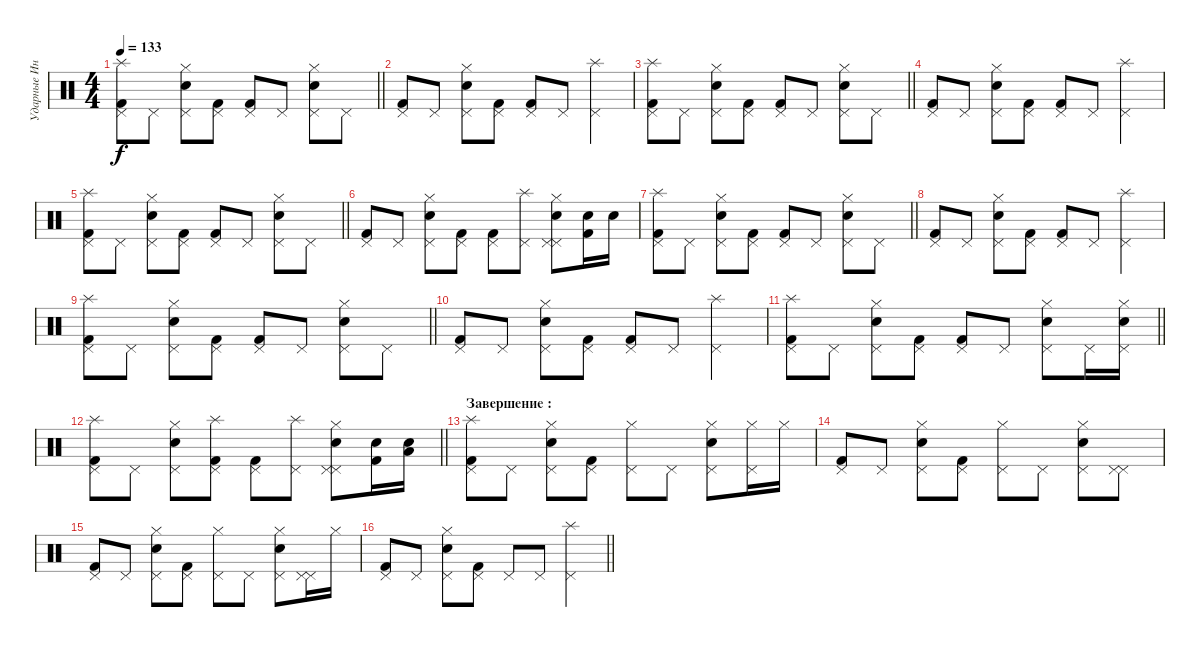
\track ("Ударные Инструменты" "Ударные Ин") {instrument percussion}
\staff {score}
\articulation defaults
\ts (4 4)
\tempo 133
\clef neutral
\barLineRight lightlight
\ks c
("Splash (hit)" "Pedal Hi-Hat (hit)" "Kick (hit) 2").8{dy f} "Pedal Hi-Hat (hit)".8 ("Electric Snare (hit)" "Pedal Hi-Hat (hit)" "Hi-Hat (closed)").8 ("Pedal Hi-Hat (hit)" "Kick (hit) 2").8 ("Pedal Hi-Hat (hit)" "Kick (hit) 2").8 "Pedal Hi-Hat (hit)".8 ("Electric Snare (hit)" "Pedal Hi-Hat (hit)" "Hi-Hat (closed)").8 "Pedal Hi-Hat (hit)".8 |
("Pedal Hi-Hat (hit)" "Kick (hit) 2").8 "Pedal Hi-Hat (hit)".8 ("Electric Snare (hit)" "Pedal Hi-Hat (hit)" "Hi-Hat (closed)").8 ("Pedal Hi-Hat (hit)" "Kick (hit) 2").8 ("Pedal Hi-Hat (hit)" "Kick (hit) 2").8 "Pedal Hi-Hat (hit)".8 ("Splash (hit)" "Pedal Hi-Hat (hit)").4 |
\barLineRight lightlight
("Splash (hit)" "Pedal Hi-Hat (hit)" "Kick (hit) 2").8 "Pedal Hi-Hat (hit)".8 ("Electric Snare (hit)" "Pedal Hi-Hat (hit)" "Hi-Hat (closed)").8 ("Pedal Hi-Hat (hit)" "Kick (hit) 2").8 ("Pedal Hi-Hat (hit)" "Kick (hit) 2").8 "Pedal Hi-Hat (hit)".8 ("Electric Snare (hit)" "Pedal Hi-Hat (hit)" "Hi-Hat (closed)").8 "Pedal Hi-Hat (hit)".8 |
("Pedal Hi-Hat (hit)" "Kick (hit) 2").8 "Pedal Hi-Hat (hit)".8 ("Electric Snare (hit)" "Pedal Hi-Hat (hit)" "Hi-Hat (closed)").8 ("Pedal Hi-Hat (hit)" "Kick (hit) 2").8 ("Pedal Hi-Hat (hit)" "Kick (hit) 2").8 "Pedal Hi-Hat (hit)".8 ("Splash (hit)" "Pedal Hi-Hat (hit)").4 |
\barLineRight lightlight
("Splash (hit)" "Pedal Hi-Hat (hit)" "Kick (hit) 2").8 "Pedal Hi-Hat (hit)".8 ("Electric Snare (hit)" "Pedal Hi-Hat (hit)" "Hi-Hat (closed)").8 ("Pedal Hi-Hat (hit)" "Kick (hit) 2").8 ("Pedal Hi-Hat (hit)" "Kick (hit) 2").8 "Pedal Hi-Hat (hit)".8 ("Electric Snare (hit)" "Pedal Hi-Hat (hit)" "Hi-Hat (closed)").8 "Pedal Hi-Hat (hit)".8 |
("Pedal Hi-Hat (hit)" "Kick (hit) 2").8 "Pedal Hi-Hat (hit)".8 ("Electric Snare (hit)" "Pedal Hi-Hat (hit)" "Hi-Hat (closed)").8 ("Pedal Hi-Hat (hit)" "Kick (hit) 2").8 ("Pedal Hi-Hat (hit)" "Kick (hit) 2").8 ("Splash (hit)" "Pedal Hi-Hat (hit)").8 ("Electric Snare (hit)" "Pedal Hi-Hat (hit)" "Hi-Hat (closed)" "Pedal Hi-Hat (hit)").8 ("Snare (hit) 2" "Kick (hit) 2").16 "Snare (hit) 2".16 |
\barLineRight lightlight
("Splash (hit)" "Pedal Hi-Hat (hit)" "Kick (hit) 2").8 "Pedal Hi-Hat (hit)".8 ("Electric Snare (hit)" "Pedal Hi-Hat (hit)" "Hi-Hat (closed)").8 ("Pedal Hi-Hat (hit)" "Kick (hit) 2").8 ("Pedal Hi-Hat (hit)" "Kick (hit) 2").8 "Pedal Hi-Hat (hit)".8 ("Electric Snare (hit)" "Pedal Hi-Hat (hit)" "Hi-Hat (closed)").8 "Pedal Hi-Hat (hit)".8 |
("Pedal Hi-Hat (hit)" "Kick (hit) 2").8 "Pedal Hi-Hat (hit)".8 ("Electric Snare (hit)" "Pedal Hi-Hat (hit)" "Hi-Hat (closed)").8 ("Pedal Hi-Hat (hit)" "Kick (hit) 2").8 ("Pedal Hi-Hat (hit)" "Kick (hit) 2").8 "Pedal Hi-Hat (hit)".8 ("Splash (hit)" "Pedal Hi-Hat (hit)").4 |
\barLineRight lightlight
("Splash (hit)" "Pedal Hi-Hat (hit)" "Kick (hit) 2").8 "Pedal Hi-Hat (hit)".8 ("Electric Snare (hit)" "Pedal Hi-Hat (hit)" "Hi-Hat (closed)").8 ("Pedal Hi-Hat (hit)" "Kick (hit) 2").8 ("Pedal Hi-Hat (hit)" "Kick (hit) 2").8 "Pedal Hi-Hat (hit)".8 ("Electric Snare (hit)" "Pedal Hi-Hat (hit)" "Hi-Hat (closed)").8 "Pedal Hi-Hat (hit)".8 |
("Pedal Hi-Hat (hit)" "Kick (hit) 2").8 "Pedal Hi-Hat (hit)".8 ("Electric Snare (hit)" "Pedal Hi-Hat (hit)" "Hi-Hat (closed)").8 ("Pedal Hi-Hat (hit)" "Kick (hit) 2").8 ("Pedal Hi-Hat (hit)" "Kick (hit) 2").8 "Pedal Hi-Hat (hit)".8 ("Splash (hit)" "Pedal Hi-Hat (hit)").4 |
\barLineRight lightlight
("Splash (hit)" "Pedal Hi-Hat (hit)" "Kick (hit) 2").8 "Pedal Hi-Hat (hit)".8 ("Electric Snare (hit)" "Pedal Hi-Hat (hit)" "Hi-Hat (closed)").8 ("Pedal Hi-Hat (hit)" "Kick (hit) 2").8 ("Pedal Hi-Hat (hit)" "Kick (hit) 2").8 "Pedal Hi-Hat (hit)".8 ("Electric Snare (hit)" "Pedal Hi-Hat (hit)" "Hi-Hat (closed)").8 "Pedal Hi-Hat (hit)".16 ("Electric Snare (hit)" "Pedal Hi-Hat (hit)" "Hi-Hat (closed)").16 |
\barLineRight lightlight
("Splash (hit)" "Pedal Hi-Hat (hit)" "Kick (hit) 2").8 "Pedal Hi-Hat (hit)".8 ("Electric Snare (hit)" "Pedal Hi-Hat (hit)" "Hi-Hat (closed)").8 ("Splash (hit)" "Pedal Hi-Hat (hit)" "Kick (hit) 2").8 ("Pedal Hi-Hat (hit)" "Kick (hit) 2").8 ("Splash (hit)" "Pedal Hi-Hat (hit)").8 ("Electric Snare (hit)" "Pedal Hi-Hat (hit)" "Hi-Hat (closed)" "Pedal Hi-Hat (hit)").8 ("Snare (hit) 2" "Kick (hit) 2").16 ("Snare (hit) 2" "Low Floor Tom (hit)").16 |
\section ("" "Завершение :")
("Splash (hit)" "Pedal Hi-Hat (hit)" "Kick (hit) 2").8 "Pedal Hi-Hat (hit)".8 ("Electric Snare (hit)" "Pedal Hi-Hat (hit)" "Hi-Hat (closed)").8 ("Pedal Hi-Hat (hit)" "Kick (hit) 2").8 ("Hi-Hat (closed)" "Pedal Hi-Hat (hit)").8 "Pedal Hi-Hat (hit)".8 ("Electric Snare (hit)" "Pedal Hi-Hat (hit)" "Hi-Hat (closed)").8 ("Hi-Hat (closed)" "Pedal Hi-Hat (hit)").16 "Hi-Hat (closed)".16 |
("Pedal Hi-Hat (hit)" "Kick (hit) 2").8 "Pedal Hi-Hat (hit)".8 ("Electric Snare (hit)" "Pedal Hi-Hat (hit)" "Hi-Hat (closed)").8 ("Pedal Hi-Hat (hit)" "Kick (hit) 2").8 ("Hi-Hat (closed)" "Pedal Hi-Hat (hit)").8 "Pedal Hi-Hat (hit)".8 ("Electric Snare (hit)" "Pedal Hi-Hat (hit)" "Hi-Hat (closed)").8 ("Pedal Hi-Hat (hit)" "Pedal Hi-Hat (hit)").8 |
("Pedal Hi-Hat (hit)" "Kick (hit) 2").8 "Pedal Hi-Hat (hit)".8 ("Electric Snare (hit)" "Pedal Hi-Hat (hit)" "Hi-Hat (closed)").8 ("Pedal Hi-Hat (hit)" "Kick (hit) 2").8 ("Hi-Hat (closed)" "Pedal Hi-Hat (hit)").8 "Pedal Hi-Hat (hit)".8 ("Electric Snare (hit)" "Pedal Hi-Hat (hit)" "Hi-Hat (closed)").8 ("Pedal Hi-Hat (hit)" "Pedal Hi-Hat (hit)").16 "Hi-Hat (closed)".16 |
\barLineRight lightlight
("Pedal Hi-Hat (hit)" "Kick (hit) 2").8 "Pedal Hi-Hat (hit)".8 ("Electric Snare (hit)" "Pedal Hi-Hat (hit)" "Hi-Hat (closed)").8 ("Pedal Hi-Hat (hit)" "Kick (hit) 2").8 "Pedal Hi-Hat (hit)".8 "Pedal Hi-Hat (hit)".8 ("Splash (hit)" "Pedal Hi-Hat (hit)").4
